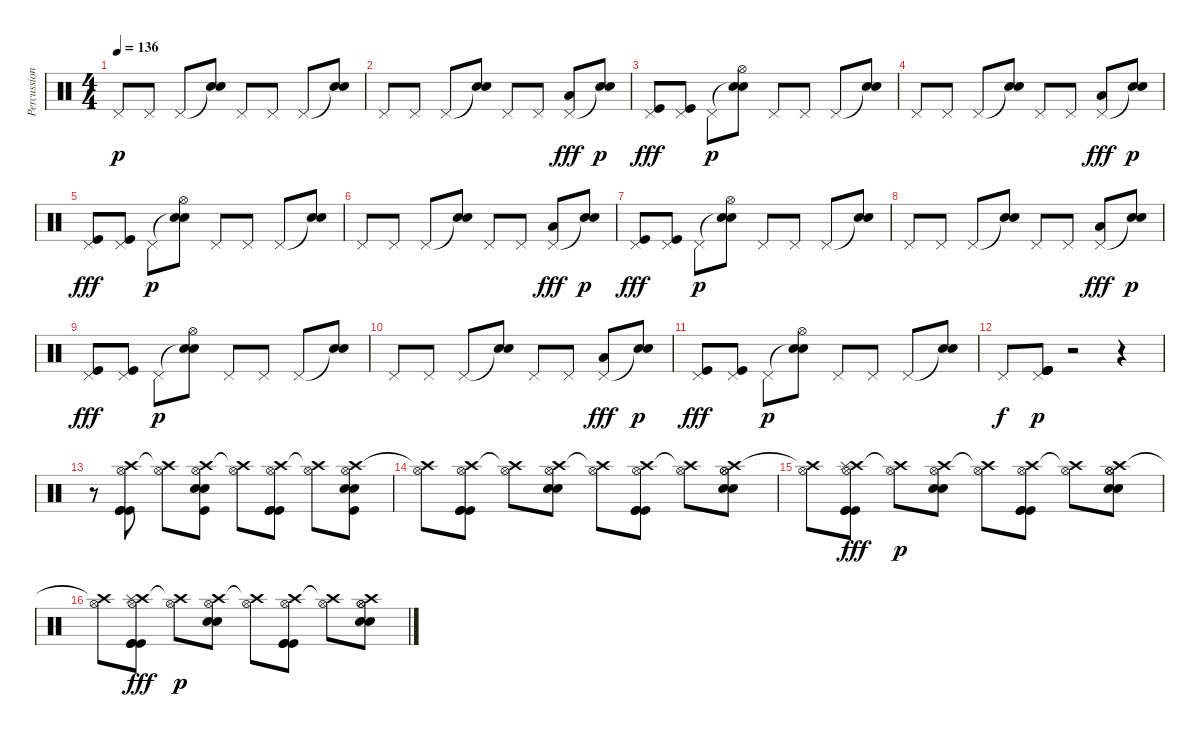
\track ("Percussions" "Percussion") {instrument percussion}
\staff {score}
\articulation defaults
\ts (4 4)
\tempo 136
\clef neutral
\ks c "Pedal Hi-Hat (hit)".8{dy p} "Pedal Hi-Hat (hit)".8 "Pedal Hi-Hat (hit)".8
("Snare (hit)"{t} "Snare (hit) 2").8 "Pedal Hi-Hat (hit)".8 "Pedal Hi-Hat (hit)".8 "Pedal Hi-Hat (hit)".8 ("Snare (hit)"{t} "Snare (hit) 2").8 |
"Pedal Hi-Hat (hit)".8 "Pedal Hi-Hat (hit)".8 "Pedal Hi-Hat (hit)".8 ("Snare (hit)"{t} "Snare (hit) 2").8 "Pedal Hi-Hat (hit)".8 "Pedal Hi-Hat (hit)".8 ("Pedal Hi-Hat (hit)" "Low Tom (hit)").8{dy fff} ("Snare (hit)"{t} "Snare (hit) 2").8{dy p} |
("Pedal Hi-Hat (hit)" "Kick (hit)").8{dy fff} ("Pedal Hi-Hat (hit)" "Kick (hit)").8 "Pedal Hi-Hat (hit)".8{dy p} ("Snare (hit)"{t} "Snare (hit) 2" "Hi-Hat (open)").8 "Pedal Hi-Hat (hit)".8 "Pedal Hi-Hat (hit)".8 "Pedal Hi-Hat (hit)".8 ("Snare (hit)"{t} "Snare (hit) 2").8 |
"Pedal Hi-Hat (hit)".8 "Pedal Hi-Hat (hit)".8 "Pedal Hi-Hat (hit)".8 ("Snare (hit)"{t} "Snare (hit) 2").8 "Pedal Hi-Hat (hit)".8 "Pedal Hi-Hat (hit)".8 ("Pedal Hi-Hat (hit)" "Low Tom (hit)").8{dy fff} ("Snare (hit)"{t} "Snare (hit) 2").8{dy p} |
("Pedal Hi-Hat (hit)" "Kick (hit)").8{dy fff} ("Pedal Hi-Hat (hit)" "Kick (hit)").8 "Pedal Hi-Hat (hit)".8{dy p} ("Snare (hit)"{t} "Snare (hit) 2" "Hi-Hat (open)").8 "Pedal Hi-Hat (hit)".8 "Pedal Hi-Hat (hit)".8 "Pedal Hi-Hat (hit)".8 ("Snare (hit)"{t} "Snare (hit) 2").8 |
"Pedal Hi-Hat (hit)".8 "Pedal Hi-Hat (hit)".8 "Pedal Hi-Hat (hit)".8 ("Snare (hit)"{t} "Snare (hit) 2").8 "Pedal Hi-Hat (hit)".8 "Pedal Hi-Hat (hit)".8 ("Pedal Hi-Hat (hit)" "Low Tom (hit)").8{dy fff} ("Snare (hit)"{t} "Snare (hit) 2").8{dy p} |
("Pedal Hi-Hat (hit)" "Kick (hit)").8{dy fff} ("Pedal Hi-Hat (hit)" "Kick (hit)").8 "Pedal Hi-Hat (hit)".8{dy p} ("Snare (hit)"{t} "Snare (hit) 2" "Hi-Hat (open)").8 "Pedal Hi-Hat (hit)".8 "Pedal Hi-Hat (hit)".8 "Pedal Hi-Hat (hit)".8 ("Snare (hit)"{t} "Snare (hit) 2").8 |
"Pedal Hi-Hat (hit)".8 "Pedal Hi-Hat (hit)".8 "Pedal Hi-Hat (hit)".8 ("Snare (hit)"{t} "Snare (hit) 2").8 "Pedal Hi-Hat (hit)".8 "Pedal Hi-Hat (hit)".8 ("Pedal Hi-Hat (hit)" "Low Tom (hit)").8{dy fff} ("Snare (hit)"{t} "Snare (hit) 2").8{dy p} |
("Pedal Hi-Hat (hit)" "Kick (hit)").8{dy fff} ("Pedal Hi-Hat (hit)" "Kick (hit)").8 "Pedal Hi-Hat (hit)".8{dy p} ("Snare (hit)"{t} "Snare (hit) 2" "Hi-Hat (open)").8 "Pedal Hi-Hat (hit)".8 "Pedal Hi-Hat (hit)".8 "Pedal Hi-Hat (hit)".8 ("Snare (hit)"{t} "Snare (hit) 2").8 |
"Pedal Hi-Hat (hit)".8 "Pedal Hi-Hat (hit)".8 "Pedal Hi-Hat (hit)".8 ("Snare (hit)"{t} "Snare (hit) 2").8 "Pedal Hi-Hat (hit)".8 "Pedal Hi-Hat (hit)".8 ("Pedal Hi-Hat (hit)" "Low Tom (hit)").8{dy fff} ("Snare (hit)"{t} "Snare (hit) 2").8{dy p} |
("Pedal Hi-Hat (hit)" "Kick (hit)").8{dy fff} ("Pedal Hi-Hat (hit)" "Kick (hit)").8 "Pedal Hi-Hat (hit)".8{dy p} ("Snare (hit)"{t} "Snare (hit) 2" "Hi-Hat (open)").8 "Pedal Hi-Hat (hit)".8 "Pedal Hi-Hat (hit)".8 "Pedal Hi-Hat (hit)".8 ("Snare (hit)"{t} "Snare (hit) 2").8 |
"Pedal Hi-Hat (hit)".8{dy f} ("Pedal Hi-Hat (hit)" "Kick (hit)" "Kick (hit)" "Kick (hit)" "Kick (hit)" "Kick (hit)").8{dy p} r.2 r.4 |
r.8 ("Crash high (hit)" "Hi-Hat (open)" "Kick (hit)" "Kick (hit)" "Kick (hit)").8 ("Crash high (hit)"{t} "Hi-Hat (open)").8 ("Crash high (hit)" "Hi-Hat (open)" "Snare (hit) 2" "Snare (hit) 2" "Kick (hit)").8 ("Crash high (hit)"{t} "Hi-Hat (open)").8 ("Crash high (hit)" "Hi-Hat (open)" "Kick (hit)" "Kick (hit)" "Kick (hit)").8 ("Crash high (hit)"{t} "Hi-Hat (open)").8 ("Crash high (hit)" "Hi-Hat (open)" "Snare (hit) 2" "Snare (hit) 2" "Kick (hit)").8 |
("Crash high (hit)"{t} "Hi-Hat (open)").8 ("Crash high (hit)" "Hi-Hat (open)" "Kick (hit)" "Kick (hit)" "Kick (hit)").8 ("Crash high (hit)"{t} "Hi-Hat (open)").8 ("Crash high (hit)" "Hi-Hat (open)" "Snare (hit) 2" "Snare (hit) 2").8 ("Crash high (hit)"{t} "Hi-Hat (open)").8 ("Crash high (hit)" "Hi-Hat (open)" "Kick (hit)" "Kick (hit)" "Kick (hit)").8 ("Crash high (hit)"{t} "Hi-Hat (open)").8 ("Crash high (hit)" "Hi-Hat (open)" "Snare (hit) 2" "Snare (hit) 2" "Hi-Hat (open)").8 |
("Crash high (hit)"{t} "Hi-Hat (open)").8 ("Crash high (hit)" "Hi-Hat (open)" "Splash (hit)" "Kick (hit)" "Kick (hit)" "Kick (hit)").8{dy fff} ("Crash high (hit)"{t} "Hi-Hat (open)").8{dy p} ("Crash high (hit)" "Hi-Hat (open)" "Snare (hit) 2" "Snare (hit) 2").8 ("Crash high (hit)"{t} "Hi-Hat (open)").8 ("Crash high (hit)" "Hi-Hat (open)" "Kick (hit)" "Kick (hit)" "Kick (hit)").8 ("Crash high (hit)"{t} "Hi-Hat (open)").8 ("Crash high (hit)" "Hi-Hat (open)" "Snare (hit) 2" "Snare (hit) 2" "Hi-Hat (open)").8 |
("Crash high (hit)"{t} "Hi-Hat (open)").8 ("Crash high (hit)" "Hi-Hat (open)" "Splash (hit)" "Kick (hit)" "Kick (hit)" "Kick (hit)").8{dy fff} ("Crash high (hit)"{t} "Hi-Hat (open)").8{dy p} ("Crash high (hit)" "Hi-Hat (open)" "Snare (hit) 2" "Snare (hit) 2").8 ("Crash high (hit)"{t} "Hi-Hat (open)").8 ("Crash high (hit)" "Hi-Hat (open)" "Kick (hit)" "Kick (hit)" "Kick (hit)").8 ("Crash high (hit)"{t} "Hi-Hat (open)").8 ("Crash high (hit)" "Hi-Hat (open)" "Snare (hit) 2" "Snare (hit) 2" "Hi-Hat (open)").8
